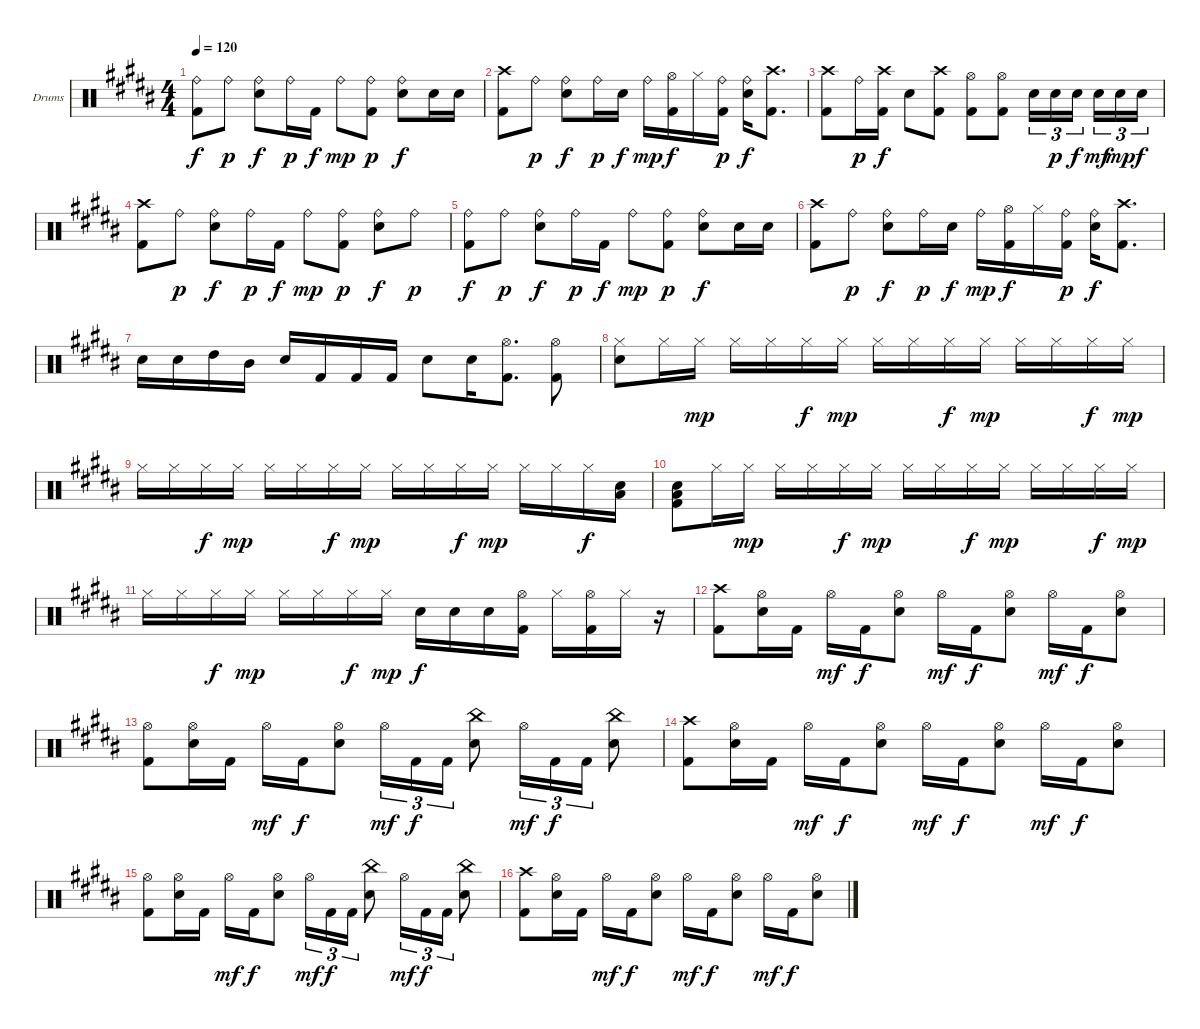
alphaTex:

\bracketExtendMode groupsimilarinstruments
\firstSystemTrackNameOrientation horizontal
\otherSystemsTrackNameOrientation horizontal
\track ("Drumkit" "Drums") {instrument percussion}
\staff {score}
\articulation defaults
\ts (4 4)
\tempo 120
\clef neutral
\ks g#minor
("Ride (bell)"{acc forcenatural} "Kick (hit) 2"{acc forcenatural}).8{dy f} "Ride (bell)"{acc forcenatural}.8{dy p} ("Ride (bell)"{acc forcenatural} "Snare (hit) 2"{acc forcenatural}).8{dy f} "Ride (bell)"{acc forcenatural}.16{dy p} "Kick (hit) 2"{acc forcenatural}.16{dy f} "Ride (bell)"{acc forcenatural}.8{dy mp} ("Ride (bell)"{acc forcenatural} "Kick (hit) 2"{acc forcenatural}).8{dy p} ("Ride (bell)"{acc forcenatural} "Snare (hit) 2"{acc forcenatural}).8{dy f} "Snare (hit) 2"{acc forcenatural}.16 "Snare (hit) 2"{acc forcenatural}.16 |
("Crash high (hit)"{acc forcenatural} "Kick (hit) 2"{acc forcenatural}).8 "Ride (bell)"{acc forcenatural}.8{dy p} ("Ride (bell)"{acc forcenatural} "Snare (hit) 2"{acc forcenatural}).8{dy f} "Ride (bell)"{acc forcenatural}.16{dy p} "Snare (hit) 2"{acc forcenatural}.16{dy f} "Ride (bell)"{acc forcenatural}.16{dy mp} ("Hi-Hat (open)"{acc forcenatural} "Kick (hit) 2"{acc forcenatural}).16{dy f} "Hi-Hat (closed)"{acc forcenatural}.16 ("Ride (bell)"{acc forcenatural} "Kick (hit) 2"{acc forcenatural}).16{dy p} ("Ride (bell)"{acc forcenatural} "Snare (hit) 2"{acc forcenatural}).16{dy f} ("Crash high (hit)"{acc forcenatural} "Kick (hit) 2"{acc forcenatural}).8{d} |
("Crash high (hit)"{acc forcenatural} "Kick (hit) 2"{acc forcenatural}).8 "Ride (bell)"{acc forcenatural}.16{dy p} ("Crash high (hit)"{acc forcenatural} "Kick (hit) 2"{acc forcenatural}).16{dy f} "Snare (hit) 2"{acc forcenatural}.8 ("Crash high (hit)"{acc forcenatural} "Kick (hit) 2"{acc forcenatural}).8 ("Hi-Hat (open)"{acc forcenatural} "Kick (hit) 2"{acc forcenatural}).8 ("Hi-Hat (open)"{acc forcenatural} "Kick (hit) 2"{acc forcenatural}).8 "Snare (hit) 2"{acc forcenatural}.16{tu (3 2)} "Snare (hit) 2"{acc forcenatural}.16{tu (3 2) dy p} "Snare (hit) 2"{acc forcenatural}.16{tu (3 2) dy f} "Snare (hit) 2"{acc forcenatural}.16{tu (3 2) dy mf} "Snare (hit) 2"{acc forcenatural}.16{tu (3 2) dy mp} "Snare (hit) 2"{acc forcenatural}.16{tu (3 2) dy f} |
("Crash high (hit)"{acc forcenatural} "Kick (hit) 2"{acc forcenatural}).8 "Ride (bell)"{acc forcenatural}.8{dy p} ("Ride (bell)"{acc forcenatural} "Snare (hit) 2"{acc forcenatural}).8{dy f} "Ride (bell)"{acc forcenatural}.16{dy p} "Kick (hit) 2"{acc forcenatural}.16{dy f} "Ride (bell)"{acc forcenatural}.8{dy mp} ("Ride (bell)"{acc forcenatural} "Kick (hit) 2"{acc forcenatural}).8{dy p} ("Ride (bell)"{acc forcenatural} "Snare (hit) 2"{acc forcenatural}).8{dy f} "Ride (bell)"{acc forcenatural}.8{dy p} |
("Ride (bell)"{acc forcenatural} "Kick (hit) 2"{acc forcenatural}).8{dy f} "Ride (bell)"{acc forcenatural}.8{dy p} ("Ride (bell)"{acc forcenatural} "Snare (hit) 2"{acc forcenatural}).8{dy f} "Ride (bell)"{acc forcenatural}.16{dy p} "Kick (hit) 2"{acc forcenatural}.16{dy f} "Ride (bell)"{acc forcenatural}.8{dy mp} ("Ride (bell)"{acc forcenatural} "Kick (hit) 2"{acc forcenatural}).8{dy p} ("Ride (bell)"{acc forcenatural} "Snare (hit) 2"{acc forcenatural}).8{dy f} "Snare (hit) 2"{acc forcenatural}.16 "Snare (hit) 2"{acc forcenatural}.16 |
("Crash high (hit)"{acc forcenatural} "Kick (hit) 2"{acc forcenatural}).8 "Ride (bell)"{acc forcenatural}.8{dy p} ("Ride (bell)"{acc forcenatural} "Snare (hit) 2"{acc forcenatural}).8{dy f} "Ride (bell)"{acc forcenatural}.16{dy p} "Snare (hit) 2"{acc forcenatural}.16{dy f} "Ride (bell)"{acc forcenatural}.16{dy mp} ("Hi-Hat (open)"{acc forcenatural} "Kick (hit) 2"{acc forcenatural}).16{dy f} "Hi-Hat (closed)"{acc forcenatural}.16 ("Ride (bell)"{acc forcenatural} "Kick (hit) 2"{acc forcenatural}).16{dy p} ("Ride (bell)"{acc forcenatural} "Snare (hit) 2"{acc forcenatural}).16{dy f} ("Crash high (hit)"{acc forcenatural} "Kick (hit) 2"{acc forcenatural}).8{d} |
"Snare (hit) 2"{acc forcenatural}.16 "Snare (hit) 2"{acc forcenatural}.16 "High Tom (hit)"{acc forcenatural}.16 "Mid Tom (hit)"{acc forcenatural}.16 "Snare (hit) 2"{acc forcenatural}.16 "Kick (hit) 2"{acc forcenatural}.16 "Kick (hit) 2"{acc forcenatural}.16 "Kick (hit) 2"{acc forcenatural}.16 "Snare (hit) 2"{acc forcenatural}.8 "Snare (hit) 2"{acc forcenatural}.16 ("Hi-Hat (open)"{acc forcenatural} "Kick (hit) 2"{acc forcenatural}).8{d} ("Hi-Hat (open)"{acc forcenatural} "Kick (hit) 2"{acc forcenatural}).8 |
("Hi-Hat (closed)"{acc forcenatural} "Snare (hit) 2"{acc forcenatural}).8 "Hi-Hat (closed)"{acc forcenatural}.16 "Hi-Hat (closed)"{acc forcenatural}.16{dy mp} "Hi-Hat (closed)"{acc forcenatural}.16 "Hi-Hat (closed)"{acc forcenatural}.16 "Hi-Hat (closed)"{acc forcenatural}.16{dy f} "Hi-Hat (closed)"{acc forcenatural}.16{dy mp} "Hi-Hat (closed)"{acc forcenatural}.16 "Hi-Hat (closed)"{acc forcenatural}.16 "Hi-Hat (closed)"{acc forcenatural}.16{dy f} "Hi-Hat (closed)"{acc forcenatural}.16{dy mp} "Hi-Hat (closed)"{acc forcenatural}.16 "Hi-Hat (closed)"{acc forcenatural}.16 "Hi-Hat (closed)"{acc forcenatural}.16{dy f} "Hi-Hat (closed)"{acc forcenatural}.16{dy mp} |
"Hi-Hat (closed)"{acc forcenatural}.16 "Hi-Hat (closed)"{acc forcenatural}.16 "Hi-Hat (closed)"{acc forcenatural}.16{dy f} "Hi-Hat (closed)"{acc forcenatural}.16{dy mp} "Hi-Hat (closed)"{acc forcenatural}.16 "Hi-Hat (closed)"{acc forcenatural}.16 "Hi-Hat (closed)"{acc forcenatural}.16{dy f} "Hi-Hat (closed)"{acc forcenatural}.16{dy mp} "Hi-Hat (closed)"{acc forcenatural}.16 "Hi-Hat (closed)"{acc forcenatural}.16 "Hi-Hat (closed)"{acc forcenatural}.16{dy f} "Hi-Hat (closed)"{acc forcenatural}.16{dy mp} "Hi-Hat (closed)"{acc forcenatural}.16 "Hi-Hat (closed)"{acc forcenatural}.16 "Hi-Hat (closed)"{acc forcenatural}.16{dy f} ("Snare (hit) 2"{acc forcenatural} "Low Tom (hit)"{acc forcenatural}).16 |
("Snare (hit) 2"{acc forcenatural} "Low Tom (hit)"{acc forcenatural} "Kick (hit) 2"{acc forcenatural}).8 "Hi-Hat (closed)"{acc forcenatural}.16 "Hi-Hat (closed)"{acc forcenatural}.16{dy mp} "Hi-Hat (closed)"{acc forcenatural}.16 "Hi-Hat (closed)"{acc forcenatural}.16 "Hi-Hat (closed)"{acc forcenatural}.16{dy f} "Hi-Hat (closed)"{acc forcenatural}.16{dy mp} "Hi-Hat (closed)"{acc forcenatural}.16 "Hi-Hat (closed)"{acc forcenatural}.16 "Hi-Hat (closed)"{acc forcenatural}.16{dy f} "Hi-Hat (closed)"{acc forcenatural}.16{dy mp} "Hi-Hat (closed)"{acc forcenatural}.16 "Hi-Hat (closed)"{acc forcenatural}.16 "Hi-Hat (closed)"{acc forcenatural}.16{dy f} "Hi-Hat (closed)"{acc forcenatural}.16{dy mp} |
"Hi-Hat (closed)"{acc forcenatural}.16 "Hi-Hat (closed)"{acc forcenatural}.16 "Hi-Hat (closed)"{acc forcenatural}.16{dy f} "Hi-Hat (closed)"{acc forcenatural}.16{dy mp} "Hi-Hat (closed)"{acc forcenatural}.16 "Hi-Hat (closed)"{acc forcenatural}.16 "Hi-Hat (closed)"{acc forcenatural}.16{dy f} "Hi-Hat (closed)"{acc forcenatural}.16{dy mp} "Snare (hit) 2"{acc forcenatural}.16{dy f} "Snare (hit) 2"{acc forcenatural}.16 "Snare (hit) 2"{acc forcenatural}.16 ("Hi-Hat (open)"{acc forcenatural} "Kick (hit) 2"{acc forcenatural}).16 "Hi-Hat (closed)"{acc forcenatural}.16 ("Hi-Hat (open)"{acc forcenatural} "Kick (hit) 2"{acc forcenatural}).16 "Hi-Hat (closed)"{acc forcenatural}.16 r.16 |
("Crash high (hit)"{acc forcenatural} "Kick (hit) 2"{acc forcenatural}).8 ("Hi-Hat (open)"{acc forcenatural} "Snare (hit) 2"{acc forcenatural}).16 "Kick (hit) 2"{acc forcenatural}.16 "Hi-Hat (open)"{acc forcenatural}.16{dy mf} "Kick (hit) 2"{acc forcenatural}.16{dy f} ("Hi-Hat (open)"{acc forcenatural} "Snare (hit) 2"{acc forcenatural}).8 "Hi-Hat (open)"{acc forcenatural}.16{dy mf} "Kick (hit) 2"{acc forcenatural}.16{dy f} ("Hi-Hat (open)"{acc forcenatural} "Snare (hit) 2"{acc forcenatural}).8 "Hi-Hat (open)"{acc forcenatural}.16{dy mf} "Kick (hit) 2"{acc forcenatural}.16{dy f} ("Hi-Hat (open)"{acc forcenatural} "Snare (hit) 2"{acc forcenatural}).8 |
("Hi-Hat (open)"{acc forcenatural} "Kick (hit) 2"{acc forcenatural}).8 ("Hi-Hat (open)"{acc forcenatural} "Snare (hit) 2"{acc forcenatural}).16 "Kick (hit) 2"{acc forcenatural}.16 "Hi-Hat (open)"{acc forcenatural}.16{dy mf} "Kick (hit) 2"{acc forcenatural}.16{dy f} ("Hi-Hat (open)"{acc forcenatural} "Snare (hit) 2"{acc forcenatural}).8 "Hi-Hat (open)"{acc forcenatural}.16{tu (3 2) dy mf} "Kick (hit) 2"{acc forcenatural}.16{tu (3 2) dy f} "Kick (hit) 2"{acc forcenatural}.16{tu (3 2)} ("China (hit)"{acc forcenatural} "Snare (hit) 2"{acc forcenatural}).8 "Hi-Hat (open)"{acc forcenatural}.16{tu (3 2) dy mf} "Kick (hit) 2"{acc forcenatural}.16{tu (3 2) dy f} "Kick (hit) 2"{acc forcenatural}.16{tu (3 2)} ("China (hit)"{acc forcenatural} "Snare (hit) 2"{acc forcenatural}).8 |
("Crash high (hit)"{acc forcenatural} "Kick (hit) 2"{acc forcenatural}).8 ("Hi-Hat (open)"{acc forcenatural} "Snare (hit) 2"{acc forcenatural}).16 "Kick (hit) 2"{acc forcenatural}.16 "Hi-Hat (open)"{acc forcenatural}.16{dy mf} "Kick (hit) 2"{acc forcenatural}.16{dy f} ("Hi-Hat (open)"{acc forcenatural} "Snare (hit) 2"{acc forcenatural}).8 "Hi-Hat (open)"{acc forcenatural}.16{dy mf} "Kick (hit) 2"{acc forcenatural}.16{dy f} ("Hi-Hat (open)"{acc forcenatural} "Snare (hit) 2"{acc forcenatural}).8 "Hi-Hat (open)"{acc forcenatural}.16{dy mf} "Kick (hit) 2"{acc forcenatural}.16{dy f} ("Hi-Hat (open)"{acc forcenatural} "Snare (hit) 2"{acc forcenatural}).8 |
("Hi-Hat (open)"{acc forcenatural} "Kick (hit) 2"{acc forcenatural}).8 ("Hi-Hat (open)"{acc forcenatural} "Snare (hit) 2"{acc forcenatural}).16 "Kick (hit) 2"{acc forcenatural}.16 "Hi-Hat (open)"{acc forcenatural}.16{dy mf} "Kick (hit) 2"{acc forcenatural}.16{dy f} ("Hi-Hat (open)"{acc forcenatural} "Snare (hit) 2"{acc forcenatural}).8 "Hi-Hat (open)"{acc forcenatural}.16{tu (3 2) dy mf} "Kick (hit) 2"{acc forcenatural}.16{tu (3 2) dy f} "Kick (hit) 2"{acc forcenatural}.16{tu (3 2)} ("China (hit)"{acc forcenatural} "Snare (hit) 2"{acc forcenatural}).8 "Hi-Hat (open)"{acc forcenatural}.16{tu (3 2) dy mf} "Kick (hit) 2"{acc forcenatural}.16{tu (3 2) dy f} "Kick (hit) 2"{acc forcenatural}.16{tu (3 2)} ("China (hit)"{acc forcenatural} "Snare (hit) 2"{acc forcenatural}).8 |
("Crash high (hit)"{acc forcenatural} "Kick (hit) 2"{acc forcenatural}).8 ("Hi-Hat (open)"{acc forcenatural} "Snare (hit) 2"{acc forcenatural}).16 "Kick (hit) 2"{acc forcenatural}.16 "Hi-Hat (open)"{acc forcenatural}.16{dy mf} "Kick (hit) 2"{acc forcenatural}.16{dy f} ("Hi-Hat (open)"{acc forcenatural} "Snare (hit) 2"{acc forcenatural}).8 "Hi-Hat (open)"{acc forcenatural}.16{dy mf} "Kick (hit) 2"{acc forcenatural}.16{dy f} ("Hi-Hat (open)"{acc forcenatural} "Snare (hit) 2"{acc forcenatural}).8 "Hi-Hat (open)"{acc forcenatural}.16{dy mf} "Kick (hit) 2"{acc forcenatural}.16{dy f} ("Hi-Hat (open)"{acc forcenatural} "Snare (hit) 2"{acc forcenatural}).8
